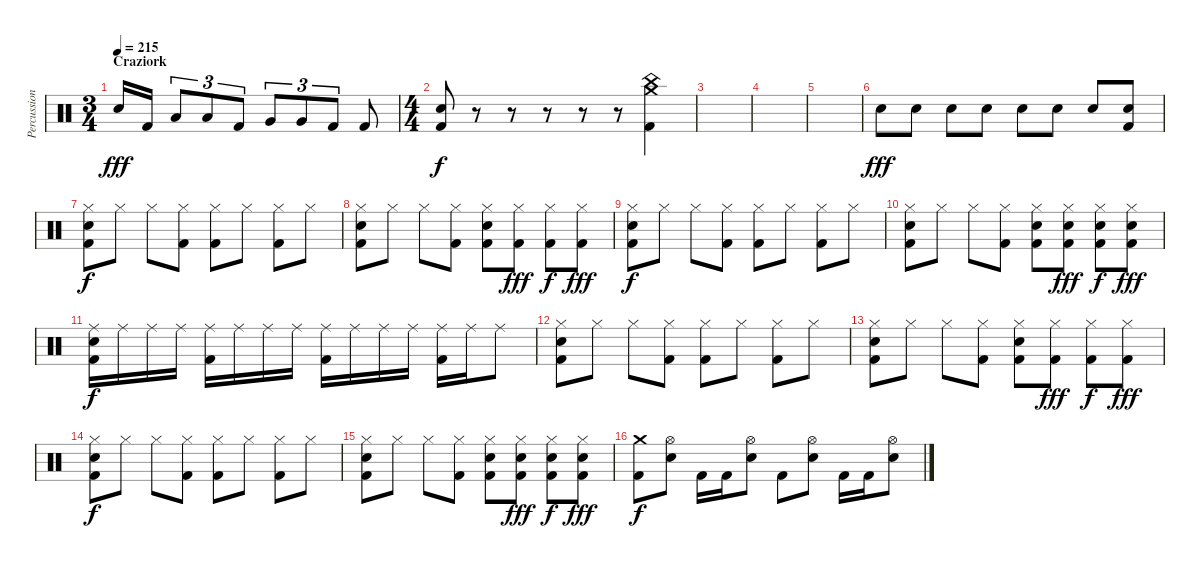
\track ("Percussion" "Percussion") {instrument percussion}
\staff {score}
\articulation defaults
\ts (3 4)
\section ("" "Craziork")
\tempo 215
\clef neutral
\ks c "Electric Snare (hit)".16{dy fff} "Kick (hit) 2".16 "Low Tom (hit)".8{tu (3 2)} "Low Tom (hit)".8{tu (3 2)} "Kick (hit) 2".8{tu (3 2)} "Very Low Tom (hit)".8{tu (3 2)} "Very Low Tom (hit)".8{tu (3 2)} "Kick (hit) 2".8{tu (3 2)} "Kick (hit) 2".8
|
\ts (4 4)
("Electric Snare (hit)" "Kick (hit) 2").8{dy f} r.8 r.8 r.8 r.8 r.8 ("China (hit)" "Crash medium (hit)" "Kick (hit) 2").4 |
|
|
|
"Electric Snare (hit)".8{dy fff} "Electric Snare (hit)".8 "Electric Snare (hit)".8 "Electric Snare (hit)".8 "Electric Snare (hit)".8 "Electric Snare (hit)".8 "Electric Snare (hit)".8 ("Electric Snare (hit)" "Kick (hit) 2").8 |
("Electric Snare (hit)" "Hi-Hat (closed)" "Kick (hit) 2").8{dy f} "Hi-Hat (closed)".8 "Hi-Hat (closed)".8 ("Hi-Hat (closed)" "Kick (hit) 2").8 ("Hi-Hat (closed)" "Kick (hit) 2").8 "Hi-Hat (closed)".8 ("Hi-Hat (closed)" "Kick (hit) 2").8 "Hi-Hat (closed)".8 |
("Electric Snare (hit)" "Hi-Hat (closed)" "Kick (hit) 2").8 "Hi-Hat (closed)".8 "Hi-Hat (closed)".8 ("Hi-Hat (closed)" "Kick (hit) 2").8 ("Electric Snare (hit)" "Hi-Hat (closed)" "Kick (hit) 2").8 ("Hi-Hat (closed)" "Kick (hit) 2").8{dy fff} ("Hi-Hat (closed)" "Kick (hit) 2").8{dy f} ("Hi-Hat (closed)" "Kick (hit) 2").8{dy fff} |
("Electric Snare (hit)" "Hi-Hat (closed)" "Kick (hit) 2").8{dy f} "Hi-Hat (closed)".8 "Hi-Hat (closed)".8 ("Hi-Hat (closed)" "Kick (hit) 2").8 ("Hi-Hat (closed)" "Kick (hit) 2").8 "Hi-Hat (closed)".8 ("Hi-Hat (closed)" "Kick (hit) 2").8 "Hi-Hat (closed)".8 |
("Electric Snare (hit)" "Hi-Hat (closed)" "Kick (hit) 2").8 "Hi-Hat (closed)".8 "Hi-Hat (closed)".8 ("Hi-Hat (closed)" "Kick (hit) 2").8 ("Electric Snare (hit)" "Hi-Hat (closed)" "Kick (hit) 2").8 ("Electric Snare (hit)" "Hi-Hat (closed)" "Kick (hit) 2").8{dy fff} ("Electric Snare (hit)" "Hi-Hat (closed)" "Kick (hit) 2").8{dy f} ("Electric Snare (hit)" "Hi-Hat (closed)" "Kick (hit) 2").8{dy fff} |
("Ride (middle)" "Electric Snare (hit)" "Kick (hit) 2").16{dy f} "Ride (middle)".16 "Ride (middle)".16 "Ride (middle)".16 ("Ride (middle)" "Kick (hit) 2").16 "Ride (middle)".16 "Ride (middle)".16 "Ride (middle)".16 ("Ride (middle)" "Kick (hit) 2").16 "Ride (middle)".16 "Ride (middle)".16 "Ride (middle)".16 ("Ride (middle)" "Kick (hit) 2").16 "Ride (middle)".16 "Ride (middle)".8 |
("Electric Snare (hit)" "Hi-Hat (closed)" "Kick (hit) 2").8 "Hi-Hat (closed)".8 "Hi-Hat (closed)".8 ("Hi-Hat (closed)" "Kick (hit) 2").8 ("Hi-Hat (closed)" "Kick (hit) 2").8 "Hi-Hat (closed)".8 ("Hi-Hat (closed)" "Kick (hit) 2").8 "Hi-Hat (closed)".8 |
("Electric Snare (hit)" "Hi-Hat (closed)" "Kick (hit) 2").8 "Hi-Hat (closed)".8 "Hi-Hat (closed)".8 ("Hi-Hat (closed)" "Kick (hit) 2").8 ("Electric Snare (hit)" "Hi-Hat (closed)" "Kick (hit) 2").8 ("Hi-Hat (closed)" "Kick (hit) 2").8{dy fff} ("Hi-Hat (closed)" "Kick (hit) 2").8{dy f} ("Hi-Hat (closed)" "Kick (hit) 2").8{dy fff} |
("Electric Snare (hit)" "Hi-Hat (closed)" "Kick (hit) 2").8{dy f} "Hi-Hat (closed)".8 "Hi-Hat (closed)".8 ("Hi-Hat (closed)" "Kick (hit) 2").8 ("Hi-Hat (closed)" "Kick (hit) 2").8 "Hi-Hat (closed)".8 ("Hi-Hat (closed)" "Kick (hit) 2").8 "Hi-Hat (closed)".8 |
("Electric Snare (hit)" "Hi-Hat (closed)" "Kick (hit) 2").8 "Hi-Hat (closed)".8 "Hi-Hat (closed)".8 ("Hi-Hat (closed)" "Kick (hit) 2").8 ("Electric Snare (hit)" "Hi-Hat (closed)" "Kick (hit) 2").8 ("Electric Snare (hit)" "Hi-Hat (closed)" "Kick (hit) 2").8{dy fff} ("Electric Snare (hit)" "Hi-Hat (closed)" "Kick (hit) 2").8{dy f} ("Electric Snare (hit)" "Hi-Hat (closed)" "Kick (hit) 2").8{dy fff} |
("Crash medium (hit)" "Kick (hit) 2").8{dy f} ("Hi-Hat (open)" "Electric Snare (hit)").8 "Kick (hit) 2".16 "Kick (hit) 2".16 ("Hi-Hat (open)" "Electric Snare (hit)").8 "Kick (hit) 2".8 ("Hi-Hat (open)" "Electric Snare (hit)").8 "Kick (hit) 2".16 "Kick (hit) 2".16 ("Hi-Hat (open)" "Electric Snare (hit)").8
